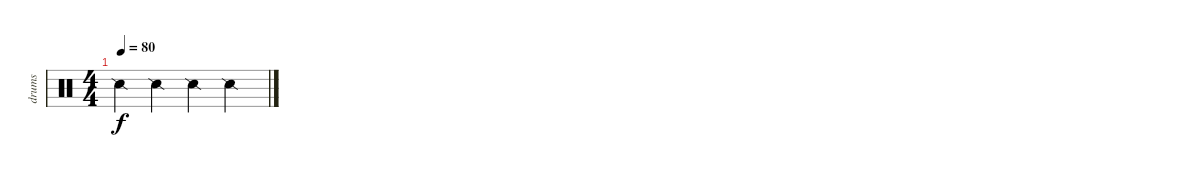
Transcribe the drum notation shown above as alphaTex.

\track ("drums" "drums") {instrument percussion}
\staff {score}
\articulation defaults
\ts (4 4)
\tempo 80
\clef neutral
\ks c "Snare (side stick) 2".4{dy f} "Snare (side stick) 2".4 "Snare (side stick) 2".4 "Snare (side stick) 2".4
